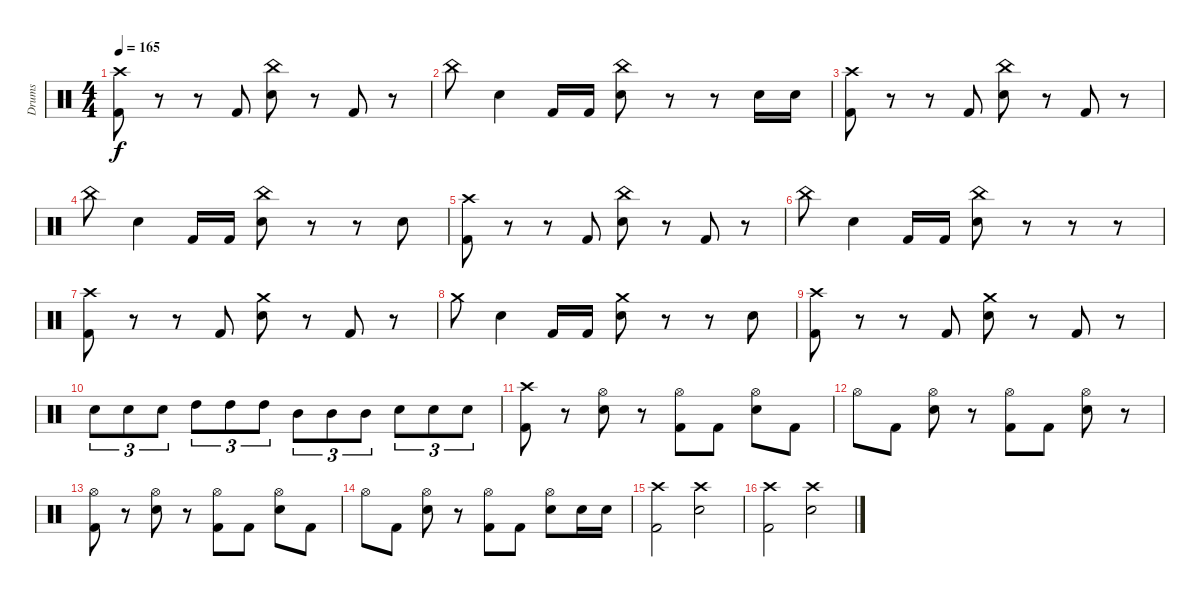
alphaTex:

\track ("Drums" "Drums") {instrument percussion}
\staff {score}
\articulation defaults
\ts (4 4)
\tempo 165
\clef neutral
\ks c
("Crash high (hit)" "Kick (hit) 2").8{dy f} r.8 r.8 "Kick (hit) 2".8 ("China (hit)" "Electric Snare (hit)").8 r.8 "Kick (hit) 2".8 r.8 |
"China (hit)".8 "Electric Snare (hit)".4 "Kick (hit) 2".16 "Kick (hit) 2".16 ("China (hit)" "Electric Snare (hit)").8 r.8 r.8 "Electric Snare (hit)".16 "Electric Snare (hit)".16 |
("Crash high (hit)" "Kick (hit) 2").8 r.8 r.8 "Kick (hit) 2".8 ("China (hit)" "Electric Snare (hit)").8 r.8 "Kick (hit) 2".8 r.8 |
"China (hit)".8 "Electric Snare (hit)".4 "Kick (hit) 2".16 "Kick (hit) 2".16 ("China (hit)" "Electric Snare (hit)").8 r.8 r.8 "Electric Snare (hit)".8 |
("Crash high (hit)" "Kick (hit) 2").8 r.8 r.8 "Kick (hit) 2".8 ("China (hit)" "Electric Snare (hit)").8 r.8 "Kick (hit) 2".8 r.8 |
"China (hit)".8 "Electric Snare (hit)".4 "Kick (hit) 2".16 "Kick (hit) 2".16 ("China (hit)" "Electric Snare (hit)").8 r.8 r.8 r.8 |
("Crash high (hit)" "Kick (hit) 2").8 r.8 r.8 "Kick (hit) 2".8 ("Crash medium (hit)" "Electric Snare (hit)").8 r.8 "Kick (hit) 2".8 r.8 |
"Crash medium (hit)".8 "Electric Snare (hit)".4 "Kick (hit) 2".16 "Kick (hit) 2".16 ("Crash medium (hit)" "Electric Snare (hit)").8 r.8 r.8 "Electric Snare (hit)".8 |
("Crash high (hit)" "Kick (hit) 2").8 r.8 r.8 "Kick (hit) 2".8 ("Crash medium (hit)" "Electric Snare (hit)").8 r.8 "Kick (hit) 2".8 r.8 |
"Electric Snare (hit)".8{tu (3 2)} "Electric Snare (hit)".8{tu (3 2)} "Electric Snare (hit)".8{tu (3 2)} "High Tom (hit)".8{tu (3 2)} "High Tom (hit)".8{tu (3 2)} "High Tom (hit)".8{tu (3 2)} "Mid Tom (hit)".8{tu (3 2)} "Mid Tom (hit)".8{tu (3 2)} "Mid Tom (hit)".8{tu (3 2)} "Electric Snare (hit)".8{tu (3 2)} "Electric Snare (hit)".8{tu (3 2)} "Electric Snare (hit)".8{tu (3 2)} |
("Crash high (hit)" "Kick (hit) 2").8 r.8 ("Hi-Hat (open)" "Electric Snare (hit)").8 r.8 ("Hi-Hat (open)" "Kick (hit) 2").8 "Kick (hit) 2".8 ("Hi-Hat (open)" "Electric Snare (hit)").8 "Kick (hit) 2".8 |
"Hi-Hat (open)".8 "Kick (hit) 2".8 ("Hi-Hat (open)" "Electric Snare (hit)").8 r.8 ("Hi-Hat (open)" "Kick (hit) 2").8 "Kick (hit) 2".8 ("Hi-Hat (open)" "Electric Snare (hit)").8 r.8 |
("Hi-Hat (open)" "Kick (hit) 2").8 r.8 ("Hi-Hat (open)" "Electric Snare (hit)").8 r.8 ("Hi-Hat (open)" "Kick (hit) 2").8 "Kick (hit) 2".8 ("Hi-Hat (open)" "Electric Snare (hit)").8 "Kick (hit) 2".8 |
"Hi-Hat (open)".8 "Kick (hit) 2".8 ("Hi-Hat (open)" "Electric Snare (hit)").8 r.8 ("Hi-Hat (open)" "Kick (hit) 2").8 "Kick (hit) 2".8 ("Hi-Hat (open)" "Electric Snare (hit)").8 "Electric Snare (hit)".16 "Electric Snare (hit)".16 |
("Crash high (hit)" "Kick (hit) 2").2 ("Crash high (hit)" "Electric Snare (hit)").2 |
("Crash high (hit)" "Kick (hit) 2").2 ("Crash high (hit)" "Electric Snare (hit)").2
